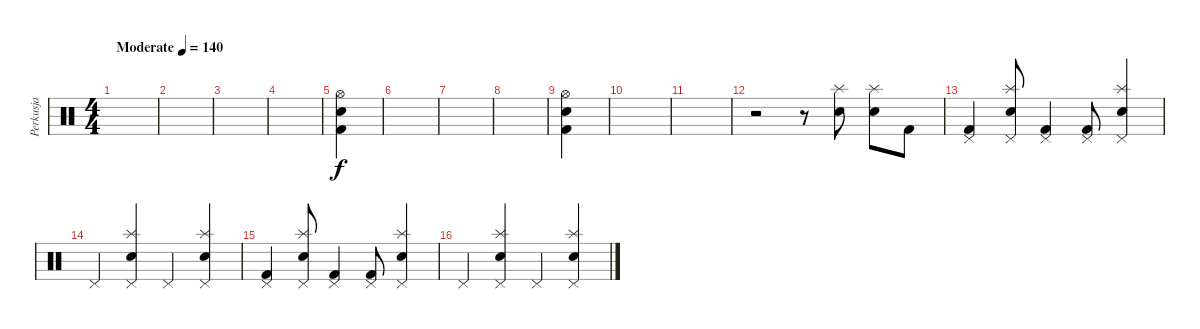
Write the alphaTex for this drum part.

\track ("Perkusja" "Perkusja") {instrument percussion}
\staff {score}
\articulation defaults
\ts (4 4)
\tempo (140 "Moderate")
\clef neutral
\ks c
|
|
|
|
("Snare (hit) 2" "Kick (hit) 2" "Hi-Hat (open)").4 |
|
|
|
("Snare (hit) 2" "Kick (hit) 2" "Hi-Hat (open)").4 |
|
|
r.2 r.8 ("Splash (hit)" "Snare (hit) 2").8 ("Splash (hit)" "Snare (hit) 2").8 "Kick (hit) 2".8 |
("Pedal Hi-Hat (hit)" "Kick (hit) 2").4 ("Pedal Hi-Hat (hit)" "Snare (hit) 2" "Splash (hit)").8 ("Pedal Hi-Hat (hit)" "Kick (hit) 2").4 ("Pedal Hi-Hat (hit)" "Kick (hit) 2").8 ("Pedal Hi-Hat (hit)" "Snare (hit) 2" "Splash (hit)").4 |
"Pedal Hi-Hat (hit)".4 ("Pedal Hi-Hat (hit)" "Snare (hit) 2" "Splash (hit)").4 "Pedal Hi-Hat (hit)".4 ("Pedal Hi-Hat (hit)" "Snare (hit) 2" "Splash (hit)").4 |
("Pedal Hi-Hat (hit)" "Kick (hit) 2").4 ("Pedal Hi-Hat (hit)" "Snare (hit) 2" "Splash (hit)").8 ("Pedal Hi-Hat (hit)" "Kick (hit) 2").4 ("Pedal Hi-Hat (hit)" "Kick (hit) 2").8 ("Pedal Hi-Hat (hit)" "Snare (hit) 2" "Splash (hit)").4 |
"Pedal Hi-Hat (hit)".4 ("Pedal Hi-Hat (hit)" "Snare (hit) 2" "Splash (hit)").4 "Pedal Hi-Hat (hit)".4 ("Pedal Hi-Hat (hit)" "Snare (hit) 2" "Splash (hit)").4
